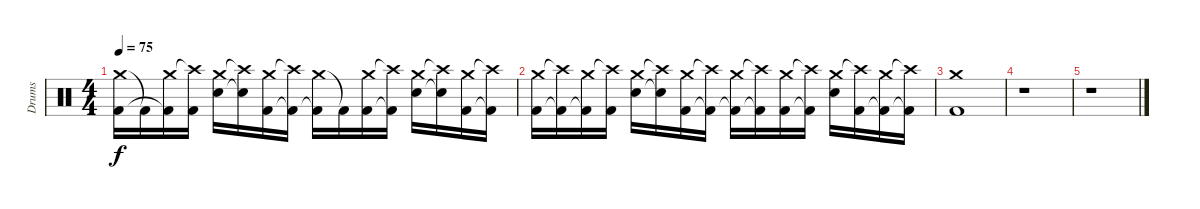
\track ("Drums" "Drums") {instrument percussion}
\staff {score}
\articulation defaults
\ts (4 4)
\tempo 75
\clef neutral
\ks c
("Crash medium (hit)" "Kick (hit) 2").16{dy f} "Kick (hit) 2"{t}.16 ("Crash medium (hit)" "Kick (hit) 2"{t}).16 ("Crash high (hit)"{t} "Kick (hit) 2").16 ("Crash medium (hit)" "Electric Snare (hit)").16 ("Crash high (hit)"{t} "Electric Snare (hit)"{t}).16 ("Crash medium (hit)" "Kick (hit) 2").16 ("Crash high (hit)"{t} "Kick (hit) 2"{t}).16 ("Crash medium (hit)" "Kick (hit) 2"{t}).16 "Kick (hit) 2"{t}.16 ("Crash medium (hit)" "Kick (hit) 2").16 ("Crash high (hit)"{t} "Kick (hit) 2"{t}).16 ("Crash medium (hit)" "Electric Snare (hit)").16 ("Crash high (hit)"{t} "Electric Snare (hit)"{t}).16 ("Crash medium (hit)" "Kick (hit) 2").16 ("Crash high (hit)"{t} "Kick (hit) 2"{t}).16 |
("Crash medium (hit)" "Kick (hit) 2").16 ("Crash high (hit)"{t} "Kick (hit) 2"{t}).16 ("Crash medium (hit)" "Kick (hit) 2"{t}).16 ("Crash high (hit)"{t} "Kick (hit) 2").16 ("Crash medium (hit)" "Electric Snare (hit)").16 ("Crash high (hit)"{t} "Electric Snare (hit)"{t}).16 ("Crash medium (hit)" "Kick (hit) 2").16 ("Crash high (hit)"{t} "Kick (hit) 2"{t}).16 ("Crash medium (hit)" "Kick (hit) 2"{t}).16 ("Crash high (hit)"{t} "Kick (hit) 2"{t}).16 ("Crash medium (hit)" "Kick (hit) 2").16 ("Crash high (hit)"{t} "Kick (hit) 2"{t}).16 ("Crash medium (hit)" "Electric Snare (hit)").16 ("Crash high (hit)"{t} "Kick (hit) 2").16 ("Crash medium (hit)" "Kick (hit) 2"{t}).16 ("Crash high (hit)"{t} "Kick (hit) 2"{t}).16 |
("Crash medium (hit)" "Kick (hit) 2").1 |
r.1 |
r.1
